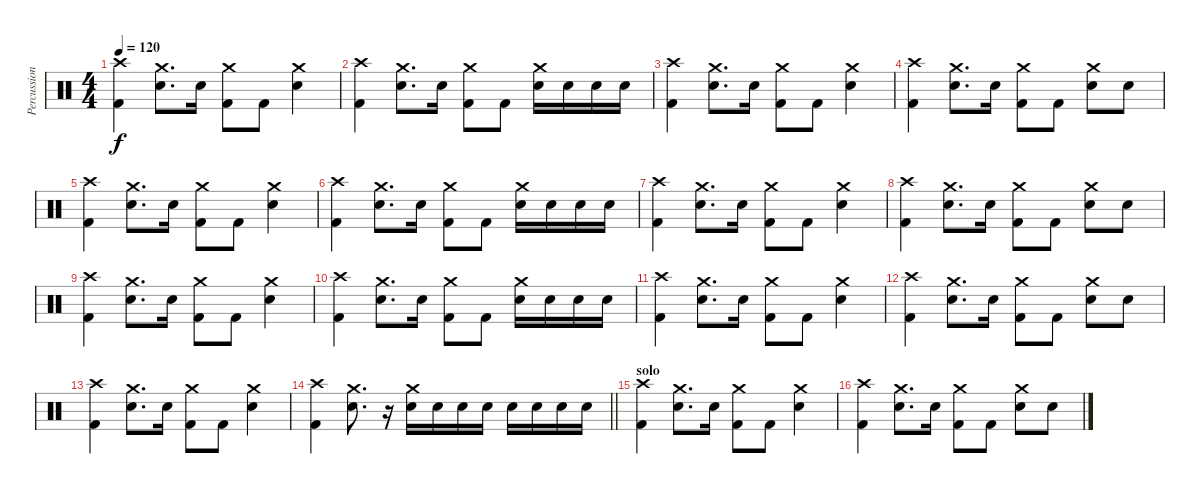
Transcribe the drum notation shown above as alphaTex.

\track ("Percussions" "Percussion") {instrument percussion}
\staff {score}
\articulation defaults
\ts (4 4)
\tempo 120
\clef neutral
\ks c
("Crash high (hit)" "Kick (hit) 2").4{dy f} ("Crash medium (hit)" "Snare (hit) 2").8{d} "Snare (hit) 2".16 ("Crash medium (hit)" "Kick (hit) 2").8 "Kick (hit) 2".8 ("Crash medium (hit)" "Snare (hit) 2").4 |
("Crash high (hit)" "Kick (hit) 2").4 ("Crash medium (hit)" "Snare (hit) 2").8{d} "Snare (hit) 2".16 ("Crash medium (hit)" "Kick (hit) 2").8 "Kick (hit) 2".8 ("Crash medium (hit)" "Snare (hit) 2").16 "Snare (hit) 2".16 "Snare (hit) 2".16 "Snare (hit) 2".16 |
("Crash high (hit)" "Kick (hit) 2").4 ("Crash medium (hit)" "Snare (hit) 2").8{d} "Snare (hit) 2".16 ("Crash medium (hit)" "Kick (hit) 2").8 "Kick (hit) 2".8 ("Crash medium (hit)" "Snare (hit) 2").4 |
("Crash high (hit)" "Kick (hit) 2").4 ("Crash medium (hit)" "Snare (hit) 2").8{d} "Snare (hit) 2".16 ("Crash medium (hit)" "Kick (hit) 2").8 "Kick (hit) 2".8 ("Crash medium (hit)" "Snare (hit) 2").8 "Snare (hit) 2".8 |
("Crash high (hit)" "Kick (hit) 2").4 ("Crash medium (hit)" "Snare (hit) 2").8{d} "Snare (hit) 2".16 ("Crash medium (hit)" "Kick (hit) 2").8 "Kick (hit) 2".8 ("Crash medium (hit)" "Snare (hit) 2").4 |
("Crash high (hit)" "Kick (hit) 2").4 ("Crash medium (hit)" "Snare (hit) 2").8{d} "Snare (hit) 2".16 ("Crash medium (hit)" "Kick (hit) 2").8 "Kick (hit) 2".8 ("Crash medium (hit)" "Snare (hit) 2").16 "Snare (hit) 2".16 "Snare (hit) 2".16 "Snare (hit) 2".16 |
("Crash high (hit)" "Kick (hit) 2").4 ("Crash medium (hit)" "Snare (hit) 2").8{d} "Snare (hit) 2".16 ("Crash medium (hit)" "Kick (hit) 2").8 "Kick (hit) 2".8 ("Crash medium (hit)" "Snare (hit) 2").4 |
("Crash high (hit)" "Kick (hit) 2").4 ("Crash medium (hit)" "Snare (hit) 2").8{d} "Snare (hit) 2".16 ("Crash medium (hit)" "Kick (hit) 2").8 "Kick (hit) 2".8 ("Crash medium (hit)" "Snare (hit) 2").8 "Snare (hit) 2".8 |
("Crash high (hit)" "Kick (hit) 2").4 ("Crash medium (hit)" "Snare (hit) 2").8{d} "Snare (hit) 2".16 ("Crash medium (hit)" "Kick (hit) 2").8 "Kick (hit) 2".8 ("Crash medium (hit)" "Snare (hit) 2").4 |
("Crash high (hit)" "Kick (hit) 2").4 ("Crash medium (hit)" "Snare (hit) 2").8{d} "Snare (hit) 2".16 ("Crash medium (hit)" "Kick (hit) 2").8 "Kick (hit) 2".8 ("Crash medium (hit)" "Snare (hit) 2").16 "Snare (hit) 2".16 "Snare (hit) 2".16 "Snare (hit) 2".16 |
("Crash high (hit)" "Kick (hit) 2").4 ("Crash medium (hit)" "Snare (hit) 2").8{d} "Snare (hit) 2".16 ("Crash medium (hit)" "Kick (hit) 2").8 "Kick (hit) 2".8 ("Crash medium (hit)" "Snare (hit) 2").4 |
("Crash high (hit)" "Kick (hit) 2").4 ("Crash medium (hit)" "Snare (hit) 2").8{d} "Snare (hit) 2".16 ("Crash medium (hit)" "Kick (hit) 2").8 "Kick (hit) 2".8 ("Crash medium (hit)" "Snare (hit) 2").8 "Snare (hit) 2".8 |
("Crash high (hit)" "Kick (hit) 2").4 ("Crash medium (hit)" "Snare (hit) 2").8{d} "Snare (hit) 2".16 ("Crash medium (hit)" "Kick (hit) 2").8 "Kick (hit) 2".8 ("Crash medium (hit)" "Snare (hit) 2").4 |
\barLineRight lightlight
("Crash high (hit)" "Kick (hit) 2").4 ("Crash medium (hit)" "Snare (hit) 2").8{d} r.16 ("Crash medium (hit)" "Snare (hit) 2").16 "Snare (hit) 2".16 "Snare (hit) 2".16 "Snare (hit) 2".16 "Snare (hit) 2".16 "Snare (hit) 2".16 "Snare (hit) 2".16 "Snare (hit) 2".16 |
\section ("" "solo")
("Crash high (hit)" "Kick (hit) 2").4 ("Crash medium (hit)" "Snare (hit) 2").8{d} "Snare (hit) 2".16 ("Crash medium (hit)" "Kick (hit) 2").8 "Kick (hit) 2".8 ("Crash medium (hit)" "Snare (hit) 2").4 |
("Crash high (hit)" "Kick (hit) 2").4 ("Crash medium (hit)" "Snare (hit) 2").8{d} "Snare (hit) 2".16 ("Crash medium (hit)" "Kick (hit) 2").8 "Kick (hit) 2".8 ("Crash medium (hit)" "Snare (hit) 2").8 "Snare (hit) 2".8
